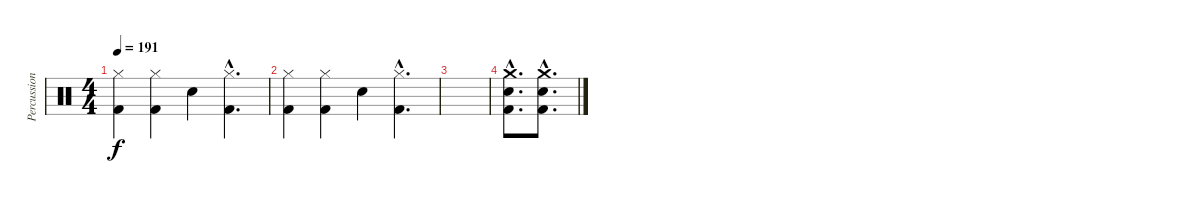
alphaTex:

\track ("Percussion" "Percussion") {instrument percussion}
\staff {score}
\articulation defaults
\ts (4 4)
\tempo 191
\clef neutral
\ks c
("Hi-Hat (closed)" "Kick (hit) 2").4{dy f} ("Hi-Hat (closed)" "Kick (hit) 2").4 "Electric Snare (hit)".4 ("Hi-Hat (closed)"{hac} "Kick (hit) 2"{hac}).4{d} |
("Hi-Hat (closed)" "Kick (hit) 2").4 ("Hi-Hat (closed)" "Kick (hit) 2").4 "Electric Snare (hit)".4 ("Hi-Hat (closed)"{hac} "Kick (hit) 2"{hac}).4{d} |
|
("Crash medium (hit)"{hac} "Electric Snare (hit)"{hac} "Kick (hit) 2"{hac}).8{d} ("Crash medium (hit)"{hac} "Electric Snare (hit)"{hac} "Kick (hit) 2"{hac}).8{d}
